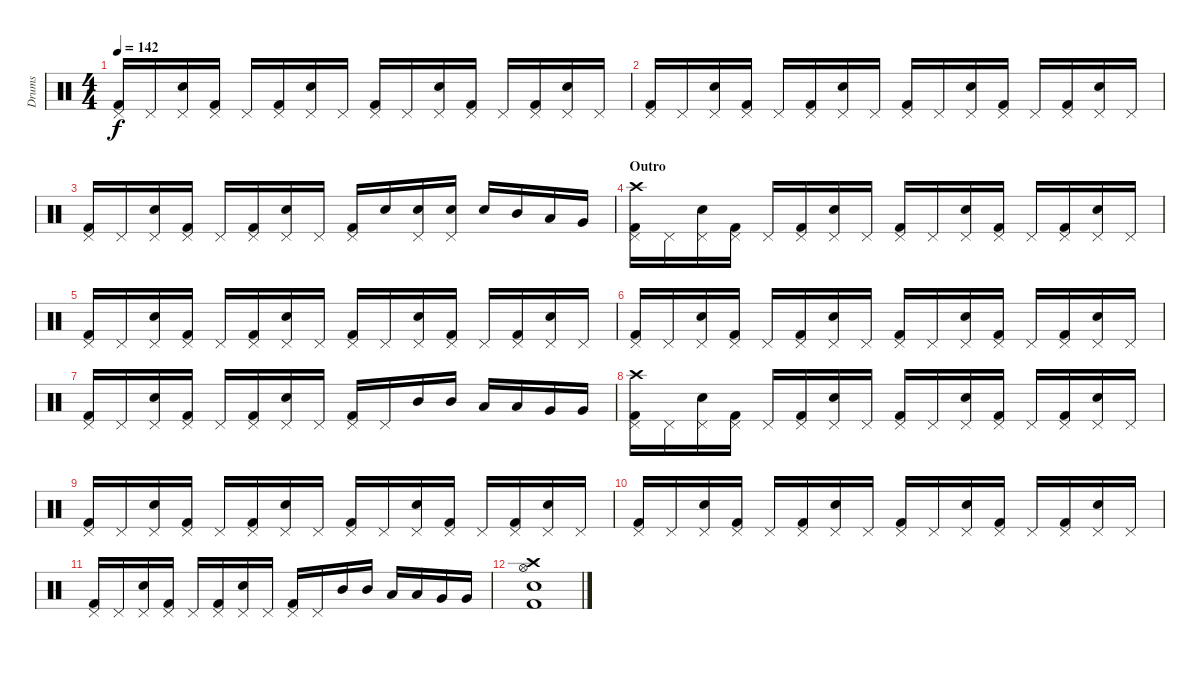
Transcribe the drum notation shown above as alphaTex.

\track ("Drums" "Drums") {instrument percussion}
\staff {score}
\articulation defaults
\ts (4 4)
\tempo 142
\clef neutral
\ks c
("Kick (hit) 2" "Pedal Hi-Hat (hit)").16{dy f} "Pedal Hi-Hat (hit)".16 ("Snare (hit) 2" "Pedal Hi-Hat (hit)").16 ("Kick (hit) 2" "Pedal Hi-Hat (hit)").16 "Pedal Hi-Hat (hit)".16 ("Kick (hit) 2" "Pedal Hi-Hat (hit)").16 ("Snare (hit) 2" "Pedal Hi-Hat (hit)").16 "Pedal Hi-Hat (hit)".16 ("Kick (hit) 2" "Pedal Hi-Hat (hit)").16 "Pedal Hi-Hat (hit)".16 ("Snare (hit) 2" "Pedal Hi-Hat (hit)").16 ("Kick (hit) 2" "Pedal Hi-Hat (hit)").16 "Pedal Hi-Hat (hit)".16 ("Kick (hit) 2" "Pedal Hi-Hat (hit)").16 ("Snare (hit) 2" "Pedal Hi-Hat (hit)").16 "Pedal Hi-Hat (hit)".16 |
("Kick (hit) 2" "Pedal Hi-Hat (hit)").16 "Pedal Hi-Hat (hit)".16 ("Snare (hit) 2" "Pedal Hi-Hat (hit)").16 ("Kick (hit) 2" "Pedal Hi-Hat (hit)").16 "Pedal Hi-Hat (hit)".16 ("Kick (hit) 2" "Pedal Hi-Hat (hit)").16 ("Snare (hit) 2" "Pedal Hi-Hat (hit)").16 "Pedal Hi-Hat (hit)".16 ("Kick (hit) 2" "Pedal Hi-Hat (hit)").16 "Pedal Hi-Hat (hit)".16 ("Snare (hit) 2" "Pedal Hi-Hat (hit)").16 ("Kick (hit) 2" "Pedal Hi-Hat (hit)").16 "Pedal Hi-Hat (hit)".16 ("Kick (hit) 2" "Pedal Hi-Hat (hit)").16 ("Snare (hit) 2" "Pedal Hi-Hat (hit)").16 "Pedal Hi-Hat (hit)".16 |
("Kick (hit) 2" "Pedal Hi-Hat (hit)").16 "Pedal Hi-Hat (hit)".16 ("Snare (hit) 2" "Pedal Hi-Hat (hit)").16 ("Kick (hit) 2" "Pedal Hi-Hat (hit)").16 "Pedal Hi-Hat (hit)".16 ("Kick (hit) 2" "Pedal Hi-Hat (hit)").16 ("Snare (hit) 2" "Pedal Hi-Hat (hit)").16 "Pedal Hi-Hat (hit)".16 ("Kick (hit) 2" "Pedal Hi-Hat (hit)").16 "Snare (hit) 2".16 ("Snare (hit) 2" "Pedal Hi-Hat (hit)").16 ("Snare (hit) 2" "Pedal Hi-Hat (hit)").16 "Snare (hit) 2".16 "Mid Tom (hit)".16 "Low Tom (hit)".16 "Very Low Tom (hit)".16 |
\section ("" "Outro")
("Kick (hit) 2" "Pedal Hi-Hat (hit)" "Crash high (hit)").16 "Pedal Hi-Hat (hit)".16 ("Snare (hit) 2" "Pedal Hi-Hat (hit)").16 ("Kick (hit) 2" "Pedal Hi-Hat (hit)").16 "Pedal Hi-Hat (hit)".16 ("Kick (hit) 2" "Pedal Hi-Hat (hit)").16 ("Snare (hit) 2" "Pedal Hi-Hat (hit)").16 "Pedal Hi-Hat (hit)".16 ("Kick (hit) 2" "Pedal Hi-Hat (hit)").16 "Pedal Hi-Hat (hit)".16 ("Snare (hit) 2" "Pedal Hi-Hat (hit)").16 ("Kick (hit) 2" "Pedal Hi-Hat (hit)").16 "Pedal Hi-Hat (hit)".16 ("Kick (hit) 2" "Pedal Hi-Hat (hit)").16 ("Snare (hit) 2" "Pedal Hi-Hat (hit)").16 "Pedal Hi-Hat (hit)".16 |
("Kick (hit) 2" "Pedal Hi-Hat (hit)").16 "Pedal Hi-Hat (hit)".16 ("Snare (hit) 2" "Pedal Hi-Hat (hit)").16 ("Kick (hit) 2" "Pedal Hi-Hat (hit)").16 "Pedal Hi-Hat (hit)".16 ("Kick (hit) 2" "Pedal Hi-Hat (hit)").16 ("Snare (hit) 2" "Pedal Hi-Hat (hit)").16 "Pedal Hi-Hat (hit)".16 ("Kick (hit) 2" "Pedal Hi-Hat (hit)").16 "Pedal Hi-Hat (hit)".16 ("Snare (hit) 2" "Pedal Hi-Hat (hit)").16 ("Kick (hit) 2" "Pedal Hi-Hat (hit)").16 "Pedal Hi-Hat (hit)".16 ("Kick (hit) 2" "Pedal Hi-Hat (hit)").16 ("Snare (hit) 2" "Pedal Hi-Hat (hit)").16 "Pedal Hi-Hat (hit)".16 |
("Kick (hit) 2" "Pedal Hi-Hat (hit)").16 "Pedal Hi-Hat (hit)".16 ("Snare (hit) 2" "Pedal Hi-Hat (hit)").16 ("Kick (hit) 2" "Pedal Hi-Hat (hit)").16 "Pedal Hi-Hat (hit)".16 ("Kick (hit) 2" "Pedal Hi-Hat (hit)").16 ("Snare (hit) 2" "Pedal Hi-Hat (hit)").16 "Pedal Hi-Hat (hit)".16 ("Kick (hit) 2" "Pedal Hi-Hat (hit)").16 "Pedal Hi-Hat (hit)".16 ("Snare (hit) 2" "Pedal Hi-Hat (hit)").16 ("Kick (hit) 2" "Pedal Hi-Hat (hit)").16 "Pedal Hi-Hat (hit)".16 ("Kick (hit) 2" "Pedal Hi-Hat (hit)").16 ("Snare (hit) 2" "Pedal Hi-Hat (hit)").16 "Pedal Hi-Hat (hit)".16 |
("Kick (hit) 2" "Pedal Hi-Hat (hit)").16 "Pedal Hi-Hat (hit)".16 ("Snare (hit) 2" "Pedal Hi-Hat (hit)").16 ("Kick (hit) 2" "Pedal Hi-Hat (hit)").16 "Pedal Hi-Hat (hit)".16 ("Kick (hit) 2" "Pedal Hi-Hat (hit)").16 ("Snare (hit) 2" "Pedal Hi-Hat (hit)").16 "Pedal Hi-Hat (hit)".16 ("Kick (hit) 2" "Pedal Hi-Hat (hit)").16 "Pedal Hi-Hat (hit)".16 "Mid Tom (hit)".16 "Mid Tom (hit)".16 "Low Tom (hit)".16 "Low Tom (hit)".16 "Very Low Tom (hit)".16 "Very Low Tom (hit)".16 |
("Kick (hit) 2" "Pedal Hi-Hat (hit)" "Crash high (hit)").16 "Pedal Hi-Hat (hit)".16 ("Snare (hit) 2" "Pedal Hi-Hat (hit)").16 ("Kick (hit) 2" "Pedal Hi-Hat (hit)").16 "Pedal Hi-Hat (hit)".16 ("Kick (hit) 2" "Pedal Hi-Hat (hit)").16 ("Snare (hit) 2" "Pedal Hi-Hat (hit)").16 "Pedal Hi-Hat (hit)".16 ("Kick (hit) 2" "Pedal Hi-Hat (hit)").16 "Pedal Hi-Hat (hit)".16 ("Snare (hit) 2" "Pedal Hi-Hat (hit)").16 ("Kick (hit) 2" "Pedal Hi-Hat (hit)").16 "Pedal Hi-Hat (hit)".16 ("Kick (hit) 2" "Pedal Hi-Hat (hit)").16 ("Snare (hit) 2" "Pedal Hi-Hat (hit)").16 "Pedal Hi-Hat (hit)".16 |
("Kick (hit) 2" "Pedal Hi-Hat (hit)").16 "Pedal Hi-Hat (hit)".16 ("Snare (hit) 2" "Pedal Hi-Hat (hit)").16 ("Kick (hit) 2" "Pedal Hi-Hat (hit)").16 "Pedal Hi-Hat (hit)".16 ("Kick (hit) 2" "Pedal Hi-Hat (hit)").16 ("Snare (hit) 2" "Pedal Hi-Hat (hit)").16 "Pedal Hi-Hat (hit)".16 ("Kick (hit) 2" "Pedal Hi-Hat (hit)").16 "Pedal Hi-Hat (hit)".16 ("Snare (hit) 2" "Pedal Hi-Hat (hit)").16 ("Kick (hit) 2" "Pedal Hi-Hat (hit)").16 "Pedal Hi-Hat (hit)".16 ("Kick (hit) 2" "Pedal Hi-Hat (hit)").16 ("Snare (hit) 2" "Pedal Hi-Hat (hit)").16 "Pedal Hi-Hat (hit)".16 |
("Kick (hit) 2" "Pedal Hi-Hat (hit)").16 "Pedal Hi-Hat (hit)".16 ("Snare (hit) 2" "Pedal Hi-Hat (hit)").16 ("Kick (hit) 2" "Pedal Hi-Hat (hit)").16 "Pedal Hi-Hat (hit)".16 ("Kick (hit) 2" "Pedal Hi-Hat (hit)").16 ("Snare (hit) 2" "Pedal Hi-Hat (hit)").16 "Pedal Hi-Hat (hit)".16 ("Kick (hit) 2" "Pedal Hi-Hat (hit)").16 "Pedal Hi-Hat (hit)".16 ("Snare (hit) 2" "Pedal Hi-Hat (hit)").16 ("Kick (hit) 2" "Pedal Hi-Hat (hit)").16 "Pedal Hi-Hat (hit)".16 ("Kick (hit) 2" "Pedal Hi-Hat (hit)").16 ("Snare (hit) 2" "Pedal Hi-Hat (hit)").16 "Pedal Hi-Hat (hit)".16 |
("Kick (hit) 2" "Pedal Hi-Hat (hit)").16 "Pedal Hi-Hat (hit)".16 ("Snare (hit) 2" "Pedal Hi-Hat (hit)").16 ("Kick (hit) 2" "Pedal Hi-Hat (hit)").16 "Pedal Hi-Hat (hit)".16 ("Kick (hit) 2" "Pedal Hi-Hat (hit)").16 ("Snare (hit) 2" "Pedal Hi-Hat (hit)").16 "Pedal Hi-Hat (hit)".16 ("Kick (hit) 2" "Pedal Hi-Hat (hit)").16 "Pedal Hi-Hat (hit)".16 "Mid Tom (hit)".16 "Mid Tom (hit)".16 "Low Tom (hit)".16 "Low Tom (hit)".16 "Very Low Tom (hit)".16 "Very Low Tom (hit)".16 |
("Snare (hit) 2" "Kick (hit) 2" "Hi-Hat (open)" "Crash high (hit)").1
